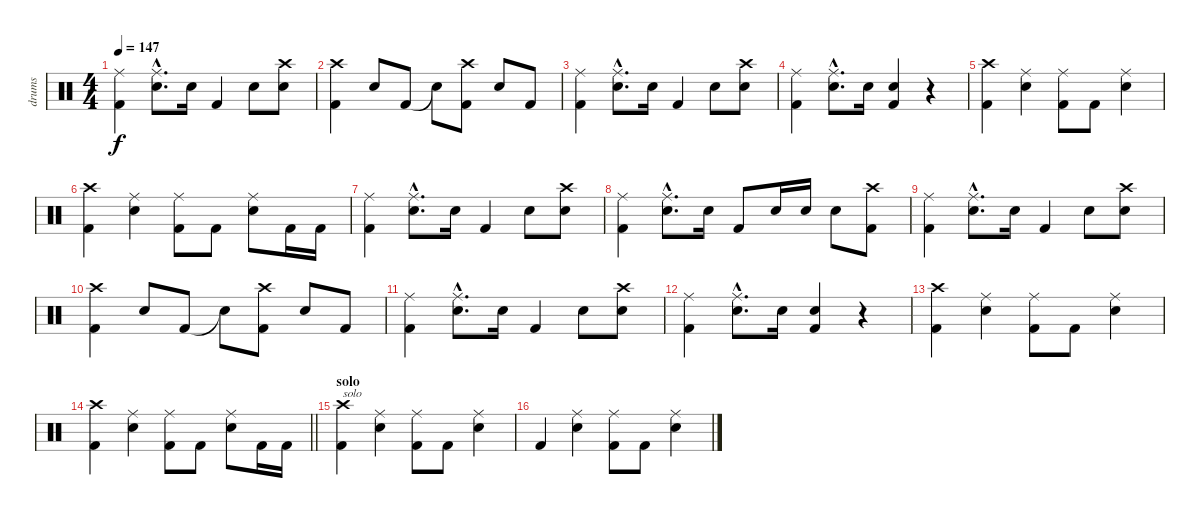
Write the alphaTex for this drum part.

\track ("drums" "drums") {instrument percussion}
\staff {score}
\articulation defaults
\ts (4 4)
\tempo 147
\clef neutral
\ks c
("Ride (middle)" "Kick (hit) 2").4{dy f} ("Ride (middle)"{hac} "Snare (hit) 2"{hac}).8{d} "Snare (hit) 2".16 "Kick (hit) 2".4 "Snare (hit) 2".8 ("Crash high (hit)" "Snare (hit) 2").8 |
("Crash high (hit)" "Kick (hit) 2").4 "Snare (hit) 2".8 "Kick (hit) 2".8 "Snare (hit)"{t}.8 ("Crash high (hit)" "Kick (hit) 2").8 "Snare (hit) 2".8 "Kick (hit) 2".8 |
("Ride (middle)" "Kick (hit) 2").4 ("Ride (middle)"{hac} "Snare (hit) 2"{hac}).8{d} "Snare (hit) 2".16 "Kick (hit) 2".4 "Snare (hit) 2".8 ("Crash high (hit)" "Snare (hit) 2").8 |
("Ride (middle)" "Kick (hit) 2").4 ("Ride (middle)"{hac} "Snare (hit) 2"{hac}).8{d} "Snare (hit) 2".16 ("Snare (hit) 2" "Kick (hit) 2").4 r.4 |
("Crash high (hit)" "Kick (hit) 2").4 ("Ride (middle)" "Snare (hit) 2").4 ("Ride (middle)" "Kick (hit) 2").8 "Kick (hit) 2".8 ("Ride (middle)" "Snare (hit) 2").4 |
("Crash high (hit)" "Kick (hit) 2").4 ("Ride (middle)" "Snare (hit) 2").4 ("Ride (middle)" "Kick (hit) 2").8 "Kick (hit) 2".8 ("Ride (middle)" "Snare (hit) 2").8 "Kick (hit) 2".16 "Kick (hit) 2".16 |
("Ride (middle)" "Kick (hit) 2").4 ("Ride (middle)"{hac} "Snare (hit) 2"{hac}).8{d} "Snare (hit) 2".16 "Kick (hit) 2".4 "Snare (hit) 2".8 ("Crash high (hit)" "Snare (hit) 2").8 |
("Ride (middle)" "Kick (hit) 2").4 ("Ride (middle)"{hac} "Snare (hit) 2"{hac}).8{d} "Snare (hit) 2".16 "Kick (hit) 2".8 "Snare (hit) 2".16 "Snare (hit) 2".16 "Snare (hit) 2".8 ("Crash high (hit)" "Kick (hit) 2").8 |
("Ride (middle)" "Kick (hit) 2").4 ("Ride (middle)"{hac} "Snare (hit) 2"{hac}).8{d} "Snare (hit) 2".16 "Kick (hit) 2".4 "Snare (hit) 2".8 ("Crash high (hit)" "Snare (hit) 2").8 |
("Crash high (hit)" "Kick (hit) 2").4 "Snare (hit) 2".8 "Kick (hit) 2".8 "Snare (hit)"{t}.8 ("Crash high (hit)" "Kick (hit) 2").8 "Snare (hit) 2".8 "Kick (hit) 2".8 |
("Ride (middle)" "Kick (hit) 2").4 ("Ride (middle)"{hac} "Snare (hit) 2"{hac}).8{d} "Snare (hit) 2".16 "Kick (hit) 2".4 "Snare (hit) 2".8 ("Crash high (hit)" "Snare (hit) 2").8 |
("Ride (middle)" "Kick (hit) 2").4 ("Ride (middle)"{hac} "Snare (hit) 2"{hac}).8{d} "Snare (hit) 2".16 ("Snare (hit) 2" "Kick (hit) 2").4 r.4 |
("Crash high (hit)" "Kick (hit) 2").4 ("Ride (middle)" "Snare (hit) 2").4 ("Ride (middle)" "Kick (hit) 2").8 "Kick (hit) 2".8 ("Ride (middle)" "Snare (hit) 2").4 |
\barLineRight lightlight
("Crash high (hit)" "Kick (hit) 2").4 ("Ride (middle)" "Snare (hit) 2").4 ("Ride (middle)" "Kick (hit) 2").8 "Kick (hit) 2".8 ("Ride (middle)" "Snare (hit) 2").8 "Kick (hit) 2".16 "Kick (hit) 2".16 |
\section ("" "solo")
("Crash high (hit)" "Kick (hit) 2").4{txt "solo"} ("Ride (middle)" "Snare (hit) 2").4 ("Ride (middle)" "Kick (hit) 2").8 "Kick (hit) 2".8 ("Ride (middle)" "Snare (hit) 2").4 |
"Kick (hit) 2".4 ("Ride (middle)" "Snare (hit) 2").4 ("Ride (middle)" "Kick (hit) 2").8 "Kick (hit) 2".8 ("Ride (middle)" "Snare (hit) 2").4
